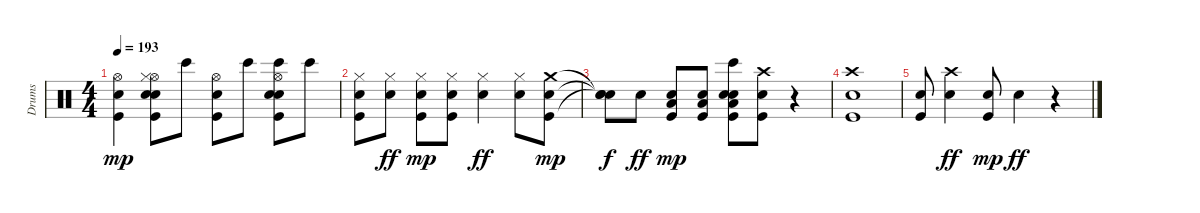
\track ("Drums" "Drums") {instrument percussion}
\staff {score}
\articulation defaults
\ts (4 4)
\tempo 193
\clef neutral
\ks c
("Kick (hit)" "Snare (hit) 2" "Hi-Hat (open)").4{dy mp} ("Kick (hit)" "Snare (hit) 2" "Electric Snare (hit)" "Hi-Hat (open)" "Hi-Hat (closed)").8 "Bongo High (hit)".8 ("Kick (hit)" "Snare (hit) 2" "Hi-Hat (open)").8 "Bongo High (hit)".8 ("Kick (hit)" "Snare (hit) 2" "Electric Snare (hit)" "Hi-Hat (open)" "Bongo High (hit)").8 "Bongo High (hit)".8 |
("Hi-Hat (closed)" "Kick (hit)" "Snare (hit) 2").8 ("Hi-Hat (closed)" "Electric Snare (hit)").8{dy ff} ("Hi-Hat (closed)" "Kick (hit)" "Snare (hit) 2").8{dy mp} ("Hi-Hat (closed)" "Kick (hit)" "Snare (hit) 2").8 ("Hi-Hat (closed)" "Electric Snare (hit)").4{dy ff} ("Hi-Hat (closed)" "Electric Snare (hit)").8 ("Crash medium (hit)" "Kick (hit)" "Snare (hit) 2").8{dy mp} |
("Snare (hit)"{t} "Snare (hit)"{t} "Snare (hit)"{t}).8{dy f} "Electric Snare (hit)".8{dy ff} ("Low Tom (hit)" "Kick (hit)" "Snare (hit) 2").8{dy mp} ("Low Tom (hit)" "Kick (hit)" "Snare (hit) 2").8 ("Low Tom (hit)" "Hand Clap (hit)" "Bongo High (hit)" "Kick (hit)" "Snare (hit) 2").8 ("Crash high (hit)" "Snare (hit) 2" "Kick (hit)").8 r.4 |
("Crash high (hit)" "Kick (hit)" "Snare (hit) 2").1 |
("Kick (hit)" "Snare (hit) 2").8 ("Crash high (hit)" "Electric Snare (hit)").4{dy ff} ("Kick (hit)" "Snare (hit) 2").8{dy mp} "Electric Snare (hit)".4{dy ff} r.4
